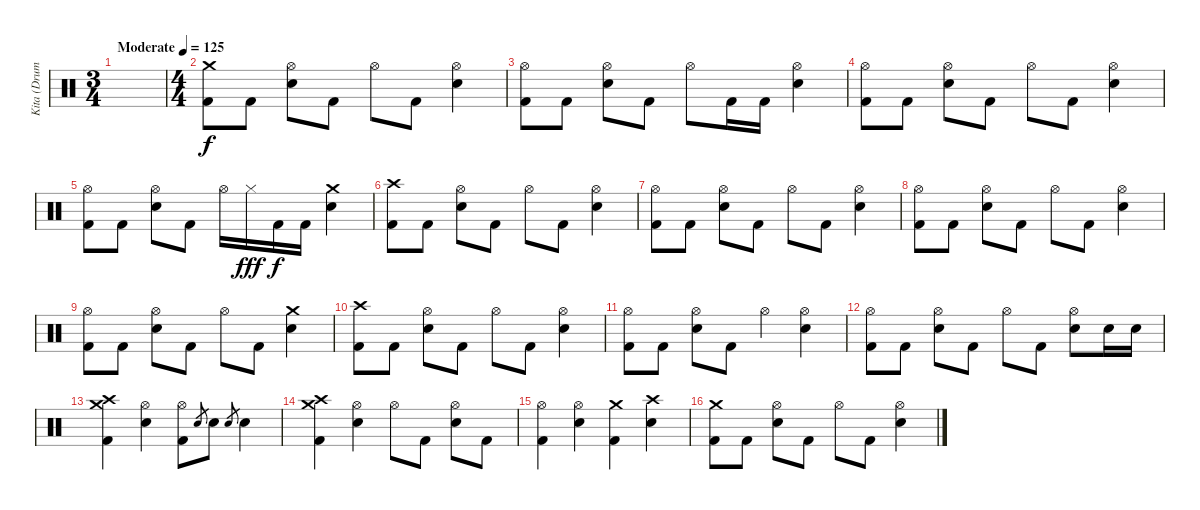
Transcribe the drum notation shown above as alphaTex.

\track ("Kita (Drums)" "Kita (Drum") {instrument percussion}
\staff {score}
\articulation defaults
\ts (3 4)
\tempo (125 "Moderate")
\clef neutral
\ks c
|
\ts (4 4)
("Crash medium (hit)" "Kick (hit) 2").8 "Kick (hit) 2".8 ("Hi-Hat (open)" "Electric Snare (hit)").8 "Kick (hit) 2".8 "Hi-Hat (open)".8 "Kick (hit) 2".8 ("Hi-Hat (open)" "Electric Snare (hit)").4 |
("Hi-Hat (open)" "Kick (hit) 2").8 "Kick (hit) 2".8 ("Hi-Hat (open)" "Electric Snare (hit)").8 "Kick (hit) 2".8 "Hi-Hat (open)".8 "Kick (hit) 2".16 "Kick (hit) 2".16 ("Hi-Hat (open)" "Electric Snare (hit)").4 |
("Hi-Hat (open)" "Kick (hit) 2").8 "Kick (hit) 2".8 ("Hi-Hat (open)" "Electric Snare (hit)").8 "Kick (hit) 2".8 "Hi-Hat (open)".8 "Kick (hit) 2".8 ("Hi-Hat (open)" "Electric Snare (hit)").4 |
("Hi-Hat (open)" "Kick (hit) 2").8 "Kick (hit) 2".8 ("Hi-Hat (open)" "Electric Snare (hit)").8 "Kick (hit) 2".8 "Hi-Hat (open)".16 "Hi-Hat (closed)".16{dy fff} "Kick (hit) 2".16{dy f} "Kick (hit) 2".16 ("Crash medium (hit)" "Electric Snare (hit)").4 |
("Crash high (hit)" "Kick (hit) 2").8 "Kick (hit) 2".8 ("Hi-Hat (open)" "Electric Snare (hit)").8 "Kick (hit) 2".8 "Hi-Hat (open)".8 "Kick (hit) 2".8 ("Hi-Hat (open)" "Electric Snare (hit)").4 |
("Hi-Hat (open)" "Kick (hit) 2").8 "Kick (hit) 2".8 ("Hi-Hat (open)" "Electric Snare (hit)").8 "Kick (hit) 2".8 "Hi-Hat (open)".8 "Kick (hit) 2".8 ("Hi-Hat (open)" "Electric Snare (hit)").4 |
("Hi-Hat (open)" "Kick (hit) 2").8 "Kick (hit) 2".8 ("Hi-Hat (open)" "Electric Snare (hit)").8 "Kick (hit) 2".8 "Hi-Hat (open)".8 "Kick (hit) 2".8 ("Hi-Hat (open)" "Electric Snare (hit)").4 |
("Hi-Hat (open)" "Kick (hit) 2").8 "Kick (hit) 2".8 ("Hi-Hat (open)" "Electric Snare (hit)").8 "Kick (hit) 2".8 "Hi-Hat (open)".8 "Kick (hit) 2".8 ("Crash medium (hit)" "Electric Snare (hit)").4 |
("Crash high (hit)" "Kick (hit) 2").8 "Kick (hit) 2".8 ("Hi-Hat (open)" "Electric Snare (hit)").8 "Kick (hit) 2".8 "Hi-Hat (open)".8 "Kick (hit) 2".8 ("Hi-Hat (open)" "Electric Snare (hit)").4 |
("Hi-Hat (open)" "Kick (hit) 2").8 "Kick (hit) 2".8 ("Hi-Hat (open)" "Electric Snare (hit)").8 "Kick (hit) 2".8 "Hi-Hat (open)".4 ("Hi-Hat (open)" "Electric Snare (hit)").4 |
("Hi-Hat (open)" "Kick (hit) 2").8 "Kick (hit) 2".8 ("Hi-Hat (open)" "Electric Snare (hit)").8 "Kick (hit) 2".8 "Hi-Hat (open)".8 "Kick (hit) 2".8 ("Hi-Hat (open)" "Electric Snare (hit)").8 "Electric Snare (hit)".16 "Electric Snare (hit)".16 |
("Crash medium (hit)" "Crash high (hit)" "Kick (hit) 2").4 ("Hi-Hat (open)" "Electric Snare (hit)").4 ("Hi-Hat (open)" "Kick (hit) 2").8 "Electric Snare (hit)".8{gr} "Electric Snare (hit)".8 "Electric Snare (hit)".8{gr} "Electric Snare (hit)".4 |
("Crash medium (hit)" "Crash high (hit)" "Kick (hit) 2").4 ("Hi-Hat (open)" "Electric Snare (hit)").4 "Hi-Hat (open)".8 "Kick (hit) 2".8 ("Hi-Hat (open)" "Electric Snare (hit)").8 "Kick (hit) 2".8 |
("Hi-Hat (open)" "Kick (hit) 2").4 ("Hi-Hat (open)" "Electric Snare (hit)").4 ("Crash medium (hit)" "Kick (hit) 2").4 ("Crash high (hit)" "Electric Snare (hit)").4 |
("Crash medium (hit)" "Kick (hit) 2").8 "Kick (hit) 2".8 ("Hi-Hat (open)" "Electric Snare (hit)").8 "Kick (hit) 2".8 "Hi-Hat (open)".8 "Kick (hit) 2".8 ("Hi-Hat (open)" "Electric Snare (hit)").4
